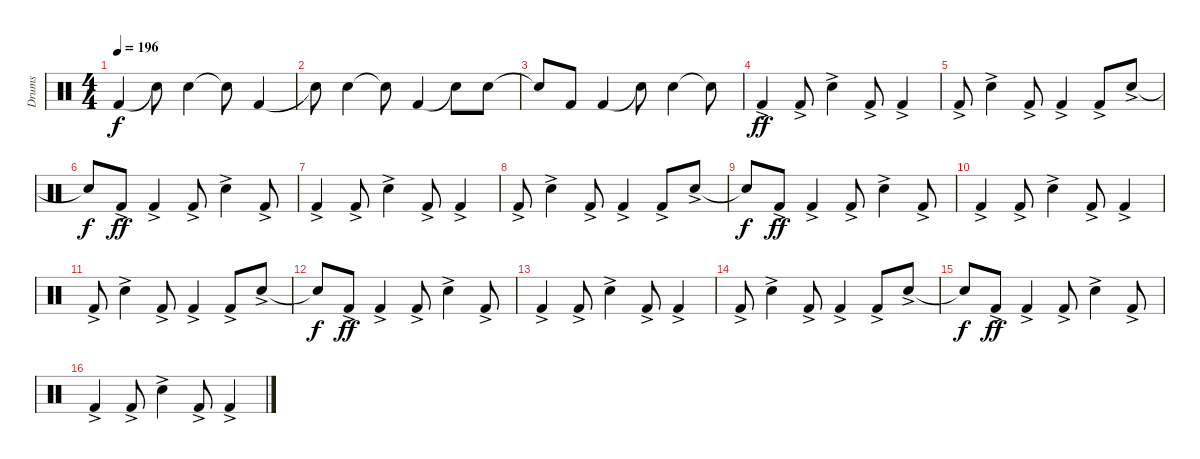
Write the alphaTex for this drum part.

\track ("Drums" "Drums") {instrument percussion}
\staff {score}
\articulation defaults
\ts (4 4)
\tempo 196
\clef neutral
\ks c "Kick (hit) 2".4{dy f} "Snare (hit)"{t}.8 "Electric Snare (hit)".4 "Snare (hit)"{t}.8 "Kick (hit) 2".4
|
"Snare (hit)"{t}.8 "Electric Snare (hit)".4 "Snare (hit)"{t}.8 "Kick (hit) 2".4 "Snare (hit)"{t}.8 "Electric Snare (hit)".8 |
"Snare (hit)"{t}.8 "Kick (hit) 2".8 "Kick (hit) 2".4 "Snare (hit)"{t}.8 "Electric Snare (hit)".4 "Snare (hit)"{t}.8 |
"Kick (hit) 2"{ac}.4{dy ff} "Kick (hit) 2"{ac}.8 "Electric Snare (hit)"{ac}.4 "Kick (hit) 2"{ac}.8 "Kick (hit) 2"{ac}.4 |
"Kick (hit) 2"{ac}.8 "Electric Snare (hit)"{ac}.4 "Kick (hit) 2"{ac}.8 "Kick (hit) 2"{ac}.4 "Kick (hit) 2"{ac}.8 "Electric Snare (hit)"{ac}.8 |
"Snare (hit)"{t}.8{dy f} "Kick (hit) 2"{ac}.8{dy ff} "Kick (hit) 2"{ac}.4 "Kick (hit) 2"{ac}.8 "Electric Snare (hit)"{ac}.4 "Kick (hit) 2"{ac}.8 |
"Kick (hit) 2"{ac}.4 "Kick (hit) 2"{ac}.8 "Electric Snare (hit)"{ac}.4 "Kick (hit) 2"{ac}.8 "Kick (hit) 2"{ac}.4 |
"Kick (hit) 2"{ac}.8 "Electric Snare (hit)"{ac}.4 "Kick (hit) 2"{ac}.8 "Kick (hit) 2"{ac}.4 "Kick (hit) 2"{ac}.8 "Electric Snare (hit)"{ac}.8 |
"Snare (hit)"{t}.8{dy f} "Kick (hit) 2"{ac}.8{dy ff} "Kick (hit) 2"{ac}.4 "Kick (hit) 2"{ac}.8 "Electric Snare (hit)"{ac}.4 "Kick (hit) 2"{ac}.8 |
"Kick (hit) 2"{ac}.4 "Kick (hit) 2"{ac}.8 "Electric Snare (hit)"{ac}.4 "Kick (hit) 2"{ac}.8 "Kick (hit) 2"{ac}.4 |
"Kick (hit) 2"{ac}.8 "Electric Snare (hit)"{ac}.4 "Kick (hit) 2"{ac}.8 "Kick (hit) 2"{ac}.4 "Kick (hit) 2"{ac}.8 "Electric Snare (hit)"{ac}.8 |
"Snare (hit)"{t}.8{dy f} "Kick (hit) 2"{ac}.8{dy ff} "Kick (hit) 2"{ac}.4 "Kick (hit) 2"{ac}.8 "Electric Snare (hit)"{ac}.4 "Kick (hit) 2"{ac}.8 |
"Kick (hit) 2"{ac}.4 "Kick (hit) 2"{ac}.8 "Electric Snare (hit)"{ac}.4 "Kick (hit) 2"{ac}.8 "Kick (hit) 2"{ac}.4 |
"Kick (hit) 2"{ac}.8 "Electric Snare (hit)"{ac}.4 "Kick (hit) 2"{ac}.8 "Kick (hit) 2"{ac}.4 "Kick (hit) 2"{ac}.8 "Electric Snare (hit)"{ac}.8 |
"Snare (hit)"{t}.8{dy f} "Kick (hit) 2"{ac}.8{dy ff} "Kick (hit) 2"{ac}.4 "Kick (hit) 2"{ac}.8 "Electric Snare (hit)"{ac}.4 "Kick (hit) 2"{ac}.8 |
"Kick (hit) 2"{ac}.4 "Kick (hit) 2"{ac}.8 "Electric Snare (hit)"{ac}.4 "Kick (hit) 2"{ac}.8 "Kick (hit) 2"{ac}.4
